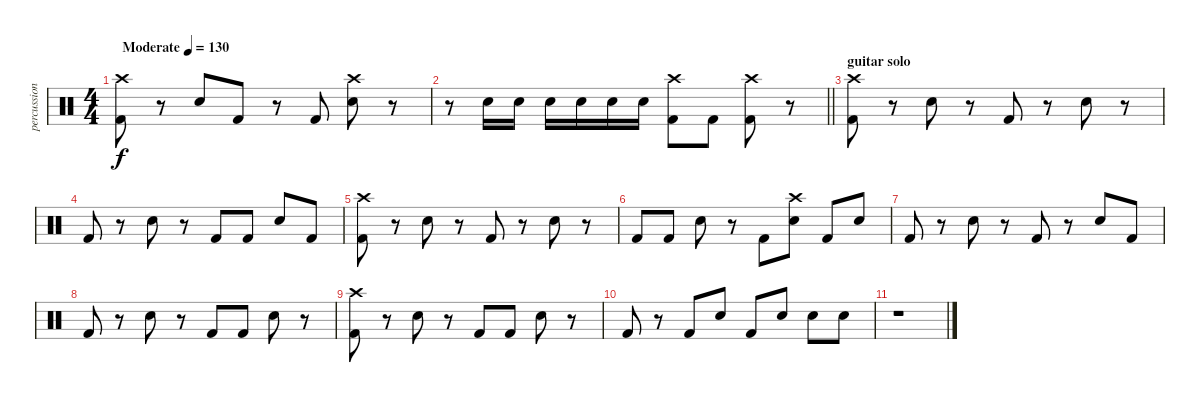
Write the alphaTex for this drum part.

\track ("percussion" "percussion") {instrument percussion}
\staff {score}
\articulation defaults
\ts (4 4)
\tempo (130 "Moderate")
\clef neutral
\ks c
("Crash high (hit)" "Kick (hit) 2").8{dy f} r.8 "Electric Snare (hit)".8 "Kick (hit) 2".8 r.8 "Kick (hit) 2".8 ("Crash high (hit)" "Electric Snare (hit)").8 r.8 |
\barLineRight lightlight
r.8 "Electric Snare (hit)".16 "Electric Snare (hit)".16 "Electric Snare (hit)".16 "Electric Snare (hit)".16 "Electric Snare (hit)".16 "Electric Snare (hit)".16 ("Crash high (hit)" "Kick (hit) 2").8 "Kick (hit) 2".8 ("Crash high (hit)" "Kick (hit) 2").8 r.8 |
\section ("" "guitar solo")
("Crash high (hit)" "Kick (hit) 2").8 r.8 "Electric Snare (hit)".8 r.8 "Kick (hit) 2".8 r.8 "Electric Snare (hit)".8 r.8 |
"Kick (hit) 2".8 r.8 "Electric Snare (hit)".8 r.8 "Kick (hit) 2".8 "Kick (hit) 2".8 "Electric Snare (hit)".8 "Kick (hit) 2".8 |
("Crash high (hit)" "Kick (hit) 2").8 r.8 "Electric Snare (hit)".8 r.8 "Kick (hit) 2".8 r.8 "Electric Snare (hit)".8 r.8 |
"Kick (hit) 2".8 "Kick (hit) 2".8 "Electric Snare (hit)".8 r.8 "Kick (hit) 2".8 ("Crash high (hit)" "Electric Snare (hit)").8 "Kick (hit) 2".8 "Electric Snare (hit)".8 |
"Kick (hit) 2".8 r.8 "Electric Snare (hit)".8 r.8 "Kick (hit) 2".8 r.8 "Electric Snare (hit)".8 "Kick (hit) 2".8 |
"Kick (hit) 2".8 r.8 "Electric Snare (hit)".8 r.8 "Kick (hit) 2".8 "Kick (hit) 2".8 "Electric Snare (hit)".8 r.8 |
("Crash high (hit)" "Kick (hit) 2").8 r.8 "Electric Snare (hit)".8 r.8 "Kick (hit) 2".8 "Kick (hit) 2".8 "Electric Snare (hit)".8 r.8 |
"Kick (hit) 2".8 r.8 "Kick (hit) 2".8 "Electric Snare (hit)".8 "Kick (hit) 2".8 "Electric Snare (hit)".8 "Electric Snare (hit)".8 "Electric Snare (hit)".8 |
r.1
